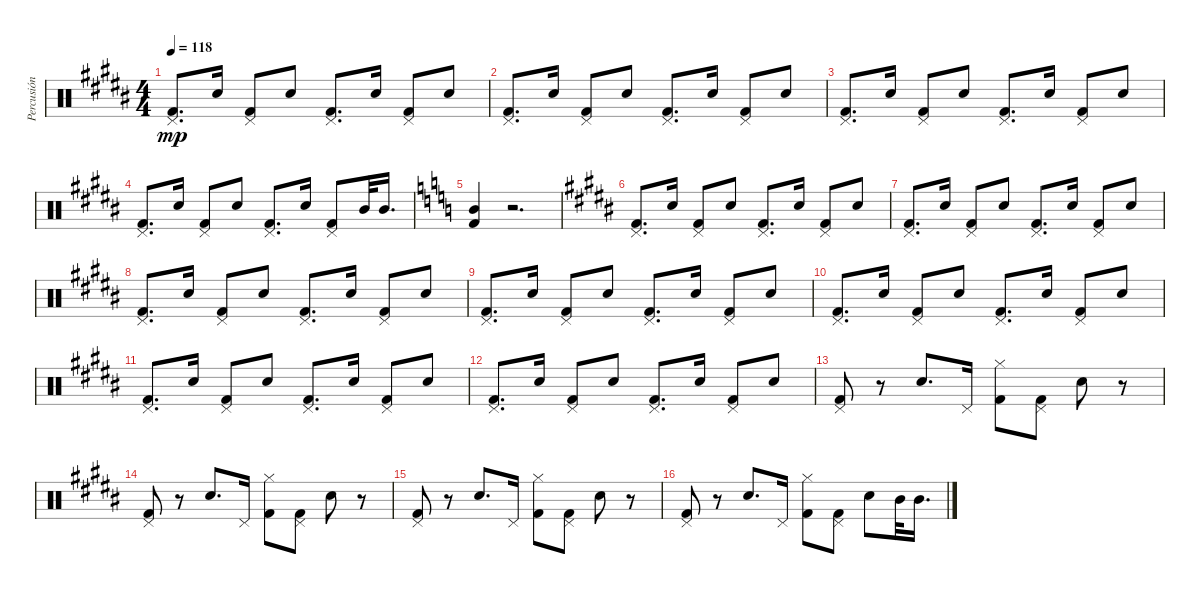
\track ("Percusión" "Percusión") {instrument percussion}
\staff {score}
\articulation defaults
\ts (4 4)
\tempo 118
\clef neutral
\ks b
("Pedal Hi-Hat (hit)" "Kick (hit) 2").8{d dy mp} "Snare (hit) 2".16 ("Pedal Hi-Hat (hit)" "Kick (hit) 2").8 "Snare (hit) 2".8 ("Pedal Hi-Hat (hit)" "Kick (hit) 2").8{d} "Snare (hit) 2".16 ("Pedal Hi-Hat (hit)" "Kick (hit) 2").8 "Snare (hit) 2".8 |
("Pedal Hi-Hat (hit)" "Kick (hit) 2").8{d} "Snare (hit) 2".16 ("Pedal Hi-Hat (hit)" "Kick (hit) 2").8 "Snare (hit) 2".8 ("Pedal Hi-Hat (hit)" "Kick (hit) 2").8{d} "Snare (hit) 2".16 ("Pedal Hi-Hat (hit)" "Kick (hit) 2").8 "Snare (hit) 2".8 |
("Pedal Hi-Hat (hit)" "Kick (hit) 2").8{d} "Snare (hit) 2".16 ("Pedal Hi-Hat (hit)" "Kick (hit) 2").8 "Snare (hit) 2".8 ("Pedal Hi-Hat (hit)" "Kick (hit) 2").8{d} "Snare (hit) 2".16 ("Pedal Hi-Hat (hit)" "Kick (hit) 2").8 "Snare (hit) 2".8 |
("Pedal Hi-Hat (hit)" "Kick (hit) 2").8{d} "Snare (hit) 2".16 ("Pedal Hi-Hat (hit)" "Kick (hit) 2").8 "Snare (hit) 2".8 ("Pedal Hi-Hat (hit)" "Kick (hit) 2").8{d} "Snare (hit) 2".16 ("Pedal Hi-Hat (hit)" "Kick (hit) 2").8 "Mid Tom (hit)".32 "Mid Tom (hit)".16{d} |
\ks c
("Mid Tom (hit)" "Kick (hit) 2").4 r.2{d} |
\ks b
("Pedal Hi-Hat (hit)" "Kick (hit) 2").8{d} "Snare (hit) 2".16 ("Pedal Hi-Hat (hit)" "Kick (hit) 2").8 "Snare (hit) 2".8 ("Pedal Hi-Hat (hit)" "Kick (hit) 2").8{d} "Snare (hit) 2".16 ("Pedal Hi-Hat (hit)" "Kick (hit) 2").8 "Snare (hit) 2".8 |
("Pedal Hi-Hat (hit)" "Kick (hit) 2").8{d} "Snare (hit) 2".16 ("Pedal Hi-Hat (hit)" "Kick (hit) 2").8 "Snare (hit) 2".8 ("Pedal Hi-Hat (hit)" "Kick (hit) 2").8{d} "Snare (hit) 2".16 ("Pedal Hi-Hat (hit)" "Kick (hit) 2").8 "Snare (hit) 2".8 |
("Pedal Hi-Hat (hit)" "Kick (hit) 2").8{d} "Snare (hit) 2".16 ("Pedal Hi-Hat (hit)" "Kick (hit) 2").8 "Snare (hit) 2".8 ("Pedal Hi-Hat (hit)" "Kick (hit) 2").8{d} "Snare (hit) 2".16 ("Pedal Hi-Hat (hit)" "Kick (hit) 2").8 "Snare (hit) 2".8 |
("Pedal Hi-Hat (hit)" "Kick (hit) 2").8{d} "Snare (hit) 2".16 ("Pedal Hi-Hat (hit)" "Kick (hit) 2").8 "Snare (hit) 2".8 ("Pedal Hi-Hat (hit)" "Kick (hit) 2").8{d} "Snare (hit) 2".16 ("Pedal Hi-Hat (hit)" "Kick (hit) 2").8 "Snare (hit) 2".8 |
("Pedal Hi-Hat (hit)" "Kick (hit) 2").8{d} "Snare (hit) 2".16 ("Pedal Hi-Hat (hit)" "Kick (hit) 2").8 "Snare (hit) 2".8 ("Pedal Hi-Hat (hit)" "Kick (hit) 2").8{d} "Snare (hit) 2".16 ("Pedal Hi-Hat (hit)" "Kick (hit) 2").8 "Snare (hit) 2".8 |
("Pedal Hi-Hat (hit)" "Kick (hit) 2").8{d} "Snare (hit) 2".16 ("Pedal Hi-Hat (hit)" "Kick (hit) 2").8 "Snare (hit) 2".8 ("Pedal Hi-Hat (hit)" "Kick (hit) 2").8{d} "Snare (hit) 2".16 ("Pedal Hi-Hat (hit)" "Kick (hit) 2").8 "Snare (hit) 2".8 |
("Pedal Hi-Hat (hit)" "Kick (hit) 2").8{d} "Snare (hit) 2".16 ("Pedal Hi-Hat (hit)" "Kick (hit) 2").8 "Snare (hit) 2".8 ("Pedal Hi-Hat (hit)" "Kick (hit) 2").8{d} "Snare (hit) 2".16 ("Pedal Hi-Hat (hit)" "Kick (hit) 2").8 "Snare (hit) 2".8 |
("Pedal Hi-Hat (hit)" "Kick (hit) 2").8 r.8 "Snare (hit) 2".8{d} "Pedal Hi-Hat (hit)".16 ("Hi-Hat (closed)" "Kick (hit) 2").8 ("Pedal Hi-Hat (hit)" "Kick (hit) 2").8 "Snare (hit) 2".8 r.8 |
("Pedal Hi-Hat (hit)" "Kick (hit) 2").8 r.8 "Snare (hit) 2".8{d} "Pedal Hi-Hat (hit)".16 ("Hi-Hat (closed)" "Kick (hit) 2").8 ("Pedal Hi-Hat (hit)" "Kick (hit) 2").8 "Snare (hit) 2".8 r.8 |
("Pedal Hi-Hat (hit)" "Kick (hit) 2").8 r.8 "Snare (hit) 2".8{d} "Pedal Hi-Hat (hit)".16 ("Hi-Hat (closed)" "Kick (hit) 2").8 ("Pedal Hi-Hat (hit)" "Kick (hit) 2").8 "Snare (hit) 2".8 r.8 |
("Pedal Hi-Hat (hit)" "Kick (hit) 2").8 r.8 "Snare (hit) 2".8{d} "Pedal Hi-Hat (hit)".16 ("Hi-Hat (closed)" "Kick (hit) 2").8 ("Pedal Hi-Hat (hit)" "Kick (hit) 2").8 "Snare (hit) 2".8 "Mid Tom (hit)".32 "Mid Tom (hit)".16{d}
